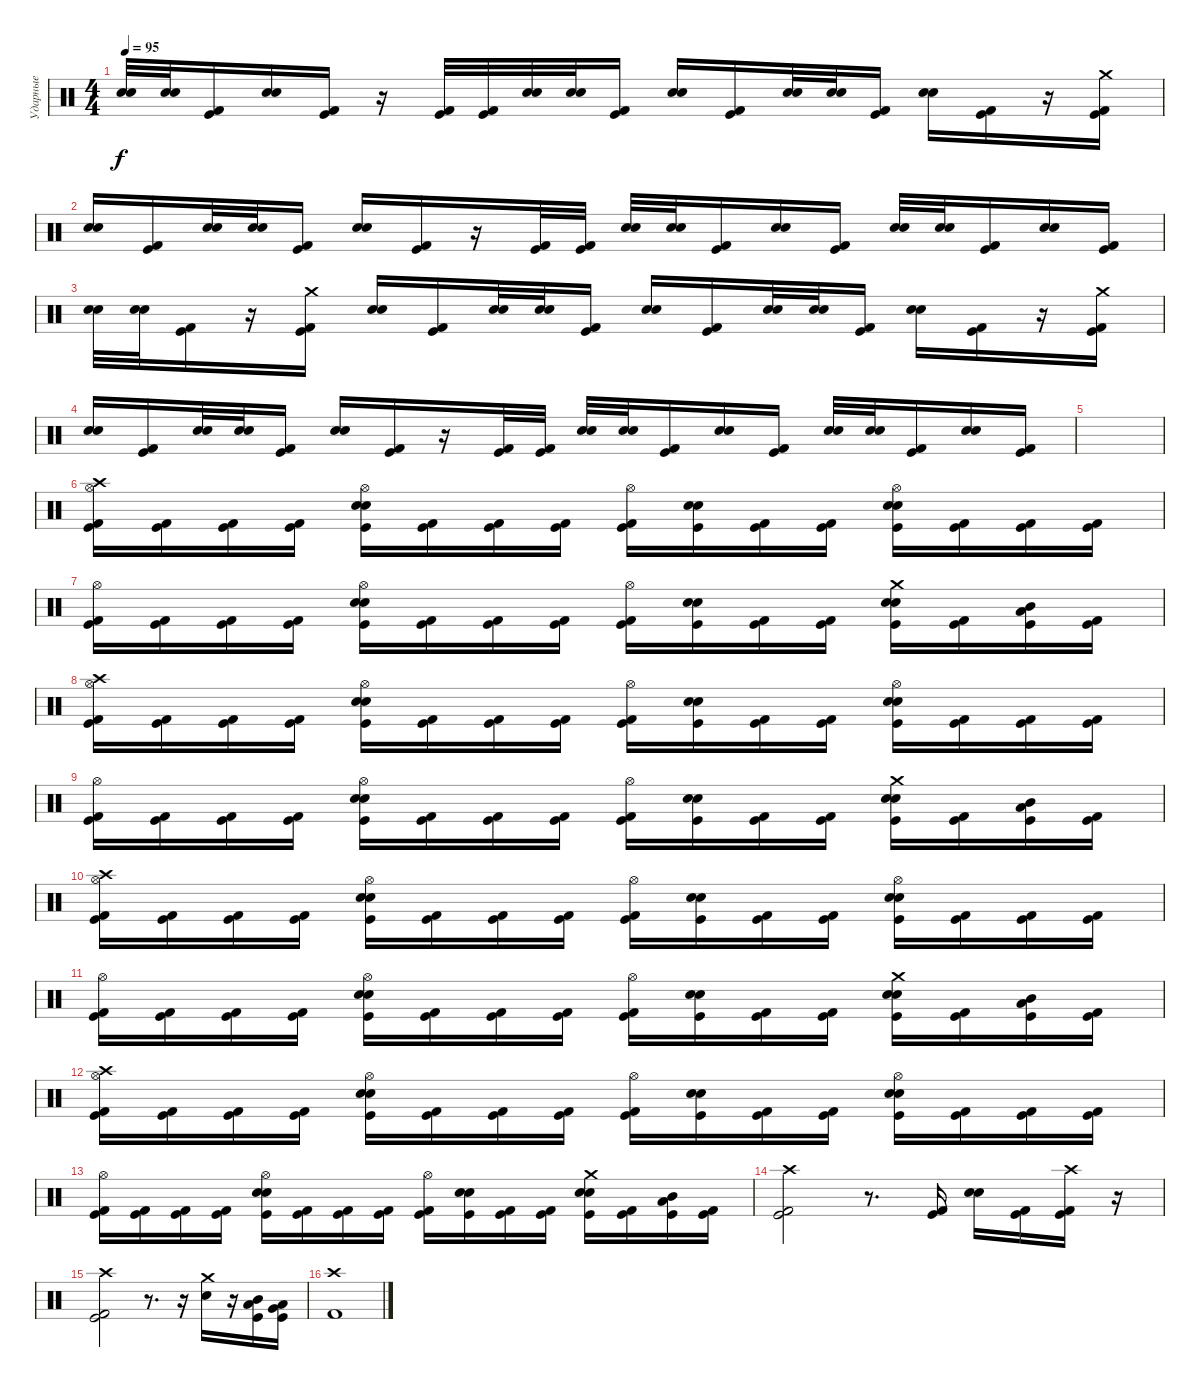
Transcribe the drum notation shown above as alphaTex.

\track ("Ударные" "Ударные") {instrument percussion}
\staff {score}
\articulation defaults
\ts (4 4)
\tempo 95
\clef neutral
\ks c
("Electric Snare (hit)" "Snare (hit)").32{dy f} ("Electric Snare (hit)" "Snare (hit)").32 ("Kick (hit) 2" "Kick (hit)").16 ("Snare (hit)" "Electric Snare (hit)").16 ("Kick (hit) 2" "Kick (hit)").16 r.16 ("Kick (hit) 2" "Kick (hit)").32 ("Kick (hit) 2" "Kick (hit)").32 ("Electric Snare (hit)" "Snare (hit)").32 ("Electric Snare (hit)" "Snare (hit)").32 ("Kick (hit) 2" "Kick (hit)").16 ("Snare (hit)" "Electric Snare (hit)").16 ("Kick (hit) 2" "Kick (hit)").16 ("Electric Snare (hit)" "Snare (hit)").32 ("Electric Snare (hit)" "Snare (hit)").32 ("Kick (hit) 2" "Kick (hit)").16 ("Snare (hit)" "Electric Snare (hit)").16 ("Kick (hit) 2" "Kick (hit)").16 r.16 ("Crash medium (hit)" "Kick (hit) 2" "Kick (hit)").16 |
("Electric Snare (hit)" "Snare (hit)").16 ("Kick (hit) 2" "Kick (hit)").16 ("Electric Snare (hit)" "Snare (hit)").32 ("Electric Snare (hit)" "Snare (hit)").32 ("Kick (hit) 2" "Kick (hit)").16 ("Snare (hit)" "Electric Snare (hit)").16 ("Kick (hit) 2" "Kick (hit)").16 r.16 ("Kick (hit) 2" "Kick (hit)").32 ("Kick (hit) 2" "Kick (hit)").32 ("Electric Snare (hit)" "Snare (hit)").32 ("Electric Snare (hit)" "Snare (hit)").32 ("Kick (hit) 2" "Kick (hit)").16 ("Snare (hit)" "Electric Snare (hit)").16 ("Kick (hit) 2" "Kick (hit)").16 ("Electric Snare (hit)" "Snare (hit)").32 ("Electric Snare (hit)" "Snare (hit)").32 ("Kick (hit) 2" "Kick (hit)").16 ("Snare (hit)" "Electric Snare (hit)").16 ("Kick (hit) 2" "Kick (hit)").16 |
("Snare (hit)" "Electric Snare (hit)").32 ("Electric Snare (hit)" "Snare (hit)").32 ("Kick (hit) 2" "Kick (hit)").16 r.16 ("Crash medium (hit)" "Kick (hit) 2" "Kick (hit)").16 ("Electric Snare (hit)" "Snare (hit)").16 ("Kick (hit) 2" "Kick (hit)").16 ("Electric Snare (hit)" "Snare (hit)").32 ("Electric Snare (hit)" "Snare (hit)").32 ("Kick (hit) 2" "Kick (hit)").16 ("Snare (hit)" "Electric Snare (hit)").16 ("Kick (hit) 2" "Kick (hit)").16 ("Electric Snare (hit)" "Snare (hit)").32 ("Electric Snare (hit)" "Snare (hit)").32 ("Kick (hit) 2" "Kick (hit)").16 ("Snare (hit)" "Electric Snare (hit)").16 ("Kick (hit) 2" "Kick (hit)").16 r.16 ("Crash medium (hit)" "Kick (hit) 2" "Kick (hit)").16 |
("Electric Snare (hit)" "Snare (hit)").16 ("Kick (hit) 2" "Kick (hit)").16 ("Electric Snare (hit)" "Snare (hit)").32 ("Electric Snare (hit)" "Snare (hit)").32 ("Kick (hit) 2" "Kick (hit)").16 ("Snare (hit)" "Electric Snare (hit)").16 ("Kick (hit) 2" "Kick (hit)").16 r.16 ("Kick (hit) 2" "Kick (hit)").32 ("Kick (hit) 2" "Kick (hit)").32 ("Electric Snare (hit)" "Snare (hit)").32 ("Electric Snare (hit)" "Snare (hit)").32 ("Kick (hit) 2" "Kick (hit)").16 ("Snare (hit)" "Electric Snare (hit)").16 ("Kick (hit) 2" "Kick (hit)").16 ("Electric Snare (hit)" "Snare (hit)").32 ("Electric Snare (hit)" "Snare (hit)").32 ("Kick (hit) 2" "Kick (hit)").16 ("Snare (hit)" "Electric Snare (hit)").16 ("Kick (hit) 2" "Kick (hit)").16 |
|
("Hi-Hat (open)" "Crash high (hit)" "Kick (hit) 2" "Kick (hit)").16 ("Kick (hit) 2" "Kick (hit)").16 ("Kick (hit) 2" "Kick (hit)").16 ("Kick (hit) 2" "Kick (hit)").16 ("Hi-Hat (open)" "Electric Snare (hit)" "Snare (hit)" "Kick (hit)").16 ("Kick (hit) 2" "Kick (hit)").16 ("Kick (hit) 2" "Kick (hit)").16 ("Kick (hit) 2" "Kick (hit)").16 ("Hi-Hat (open)" "Kick (hit) 2" "Kick (hit)").16 ("Electric Snare (hit)" "Snare (hit)" "Kick (hit)").16 ("Kick (hit) 2" "Kick (hit)").16 ("Kick (hit) 2" "Kick (hit)").16 ("Hi-Hat (open)" "Electric Snare (hit)" "Snare (hit)" "Kick (hit)").16 ("Kick (hit) 2" "Kick (hit)").16 ("Kick (hit) 2" "Kick (hit)").16 ("Kick (hit) 2" "Kick (hit)").16 |
("Hi-Hat (open)" "Kick (hit) 2" "Kick (hit)").16 ("Kick (hit) 2" "Kick (hit)").16 ("Kick (hit) 2" "Kick (hit)").16 ("Kick (hit) 2" "Kick (hit)").16 ("Hi-Hat (open)" "Electric Snare (hit)" "Snare (hit)" "Kick (hit)").16 ("Kick (hit) 2" "Kick (hit)").16 ("Kick (hit) 2" "Kick (hit)").16 ("Kick (hit) 2" "Kick (hit)").16 ("Hi-Hat (open)" "Kick (hit) 2" "Kick (hit)").16 ("Electric Snare (hit)" "Snare (hit)" "Kick (hit)").16 ("Kick (hit) 2" "Kick (hit)").16 ("Kick (hit) 2" "Kick (hit)").16 ("Crash medium (hit)" "Electric Snare (hit)" "Snare (hit)" "Kick (hit)").16 ("Kick (hit) 2" "Kick (hit)").16 ("Mid Tom (hit)" "Low Tom (hit)" "Kick (hit)").16 ("Kick (hit) 2" "Kick (hit)").16 |
("Hi-Hat (open)" "Crash high (hit)" "Kick (hit) 2" "Kick (hit)").16 ("Kick (hit) 2" "Kick (hit)").16 ("Kick (hit) 2" "Kick (hit)").16 ("Kick (hit) 2" "Kick (hit)").16 ("Hi-Hat (open)" "Electric Snare (hit)" "Snare (hit)" "Kick (hit)").16 ("Kick (hit) 2" "Kick (hit)").16 ("Kick (hit) 2" "Kick (hit)").16 ("Kick (hit) 2" "Kick (hit)").16 ("Hi-Hat (open)" "Kick (hit) 2" "Kick (hit)").16 ("Electric Snare (hit)" "Snare (hit)" "Kick (hit)").16 ("Kick (hit) 2" "Kick (hit)").16 ("Kick (hit) 2" "Kick (hit)").16 ("Hi-Hat (open)" "Electric Snare (hit)" "Snare (hit)" "Kick (hit)").16 ("Kick (hit) 2" "Kick (hit)").16 ("Kick (hit) 2" "Kick (hit)").16 ("Kick (hit) 2" "Kick (hit)").16 |
("Hi-Hat (open)" "Kick (hit) 2" "Kick (hit)").16 ("Kick (hit) 2" "Kick (hit)").16 ("Kick (hit) 2" "Kick (hit)").16 ("Kick (hit) 2" "Kick (hit)").16 ("Hi-Hat (open)" "Electric Snare (hit)" "Snare (hit)" "Kick (hit)").16 ("Kick (hit) 2" "Kick (hit)").16 ("Kick (hit) 2" "Kick (hit)").16 ("Kick (hit) 2" "Kick (hit)").16 ("Hi-Hat (open)" "Kick (hit) 2" "Kick (hit)").16 ("Electric Snare (hit)" "Snare (hit)" "Kick (hit)").16 ("Kick (hit) 2" "Kick (hit)").16 ("Kick (hit) 2" "Kick (hit)").16 ("Crash medium (hit)" "Electric Snare (hit)" "Snare (hit)" "Kick (hit)").16 ("Kick (hit) 2" "Kick (hit)").16 ("Mid Tom (hit)" "Low Tom (hit)" "Kick (hit)").16 ("Kick (hit) 2" "Kick (hit)").16 |
("Hi-Hat (open)" "Crash high (hit)" "Kick (hit) 2" "Kick (hit)").16 ("Kick (hit) 2" "Kick (hit)").16 ("Kick (hit) 2" "Kick (hit)").16 ("Kick (hit) 2" "Kick (hit)").16 ("Hi-Hat (open)" "Electric Snare (hit)" "Snare (hit)" "Kick (hit)").16 ("Kick (hit) 2" "Kick (hit)").16 ("Kick (hit) 2" "Kick (hit)").16 ("Kick (hit) 2" "Kick (hit)").16 ("Hi-Hat (open)" "Kick (hit) 2" "Kick (hit)").16 ("Electric Snare (hit)" "Snare (hit)" "Kick (hit)").16 ("Kick (hit) 2" "Kick (hit)").16 ("Kick (hit) 2" "Kick (hit)").16 ("Hi-Hat (open)" "Electric Snare (hit)" "Snare (hit)" "Kick (hit)").16 ("Kick (hit) 2" "Kick (hit)").16 ("Kick (hit) 2" "Kick (hit)").16 ("Kick (hit) 2" "Kick (hit)").16 |
("Hi-Hat (open)" "Kick (hit) 2" "Kick (hit)").16 ("Kick (hit) 2" "Kick (hit)").16 ("Kick (hit) 2" "Kick (hit)").16 ("Kick (hit) 2" "Kick (hit)").16 ("Hi-Hat (open)" "Electric Snare (hit)" "Snare (hit)" "Kick (hit)").16 ("Kick (hit) 2" "Kick (hit)").16 ("Kick (hit) 2" "Kick (hit)").16 ("Kick (hit) 2" "Kick (hit)").16 ("Hi-Hat (open)" "Kick (hit) 2" "Kick (hit)").16 ("Electric Snare (hit)" "Snare (hit)" "Kick (hit)").16 ("Kick (hit) 2" "Kick (hit)").16 ("Kick (hit) 2" "Kick (hit)").16 ("Crash medium (hit)" "Electric Snare (hit)" "Snare (hit)" "Kick (hit)").16 ("Kick (hit) 2" "Kick (hit)").16 ("Mid Tom (hit)" "Low Tom (hit)" "Kick (hit)").16 ("Kick (hit) 2" "Kick (hit)").16 |
("Hi-Hat (open)" "Crash high (hit)" "Kick (hit) 2" "Kick (hit)").16 ("Kick (hit) 2" "Kick (hit)").16 ("Kick (hit) 2" "Kick (hit)").16 ("Kick (hit) 2" "Kick (hit)").16 ("Hi-Hat (open)" "Electric Snare (hit)" "Snare (hit)" "Kick (hit)").16 ("Kick (hit) 2" "Kick (hit)").16 ("Kick (hit) 2" "Kick (hit)").16 ("Kick (hit) 2" "Kick (hit)").16 ("Hi-Hat (open)" "Kick (hit) 2" "Kick (hit)").16 ("Electric Snare (hit)" "Snare (hit)" "Kick (hit)").16 ("Kick (hit) 2" "Kick (hit)").16 ("Kick (hit) 2" "Kick (hit)").16 ("Hi-Hat (open)" "Electric Snare (hit)" "Snare (hit)" "Kick (hit)").16 ("Kick (hit) 2" "Kick (hit)").16 ("Kick (hit) 2" "Kick (hit)").16 ("Kick (hit) 2" "Kick (hit)").16 |
("Hi-Hat (open)" "Kick (hit) 2" "Kick (hit)").16 ("Kick (hit) 2" "Kick (hit)").16 ("Kick (hit) 2" "Kick (hit)").16 ("Kick (hit) 2" "Kick (hit)").16 ("Hi-Hat (open)" "Electric Snare (hit)" "Snare (hit)" "Kick (hit)").16 ("Kick (hit) 2" "Kick (hit)").16 ("Kick (hit) 2" "Kick (hit)").16 ("Kick (hit) 2" "Kick (hit)").16 ("Hi-Hat (open)" "Kick (hit) 2" "Kick (hit)").16 ("Electric Snare (hit)" "Snare (hit)" "Kick (hit)").16 ("Kick (hit) 2" "Kick (hit)").16 ("Kick (hit) 2" "Kick (hit)").16 ("Crash medium (hit)" "Electric Snare (hit)" "Snare (hit)" "Kick (hit)").16 ("Kick (hit) 2" "Kick (hit)").16 ("Mid Tom (hit)" "Low Tom (hit)" "Kick (hit)").16 ("Kick (hit) 2" "Kick (hit)").16 |
("Crash high (hit)" "Kick (hit) 2" "Kick (hit)").2 r.8{d} ("Kick (hit) 2" "Kick (hit)").16 ("Electric Snare (hit)" "Snare (hit)").16 ("Kick (hit) 2" "Kick (hit)").16 ("Crash high (hit)" "Kick (hit) 2" "Kick (hit)").16 r.16 |
("Crash high (hit)" "Kick (hit) 2" "Kick (hit)").2 r.8{d} r.16 ("Crash medium (hit)" "Electric Snare (hit)").16 r.16 ("Mid Tom (hit)" "Low Tom (hit)" "Kick (hit)").16 ("Low Tom (hit)" "Very Low Tom (hit)" "Kick (hit)").16 |
("Crash high (hit)" "Kick (hit) 2").1
